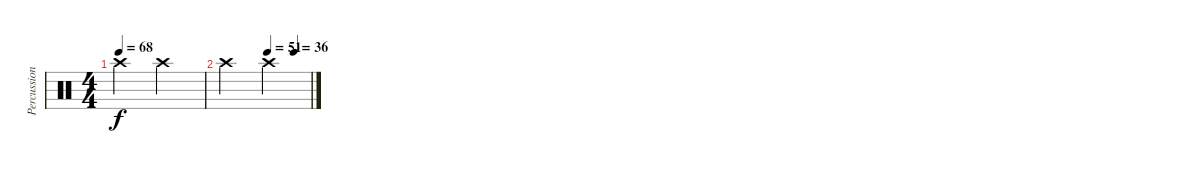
\track ("Percussion" "Percussion") {instrument percussion}
\staff {score}
\articulation defaults
\ts (4 4)
\tempo 68
\clef neutral
\ks c "Crash high (hit)".2{dy f} "Crash high (hit)".2
|
\tempo (51 0.5)
\tempo (36 0.8125)
"Crash high (hit)".2 "Crash high (hit)".2
